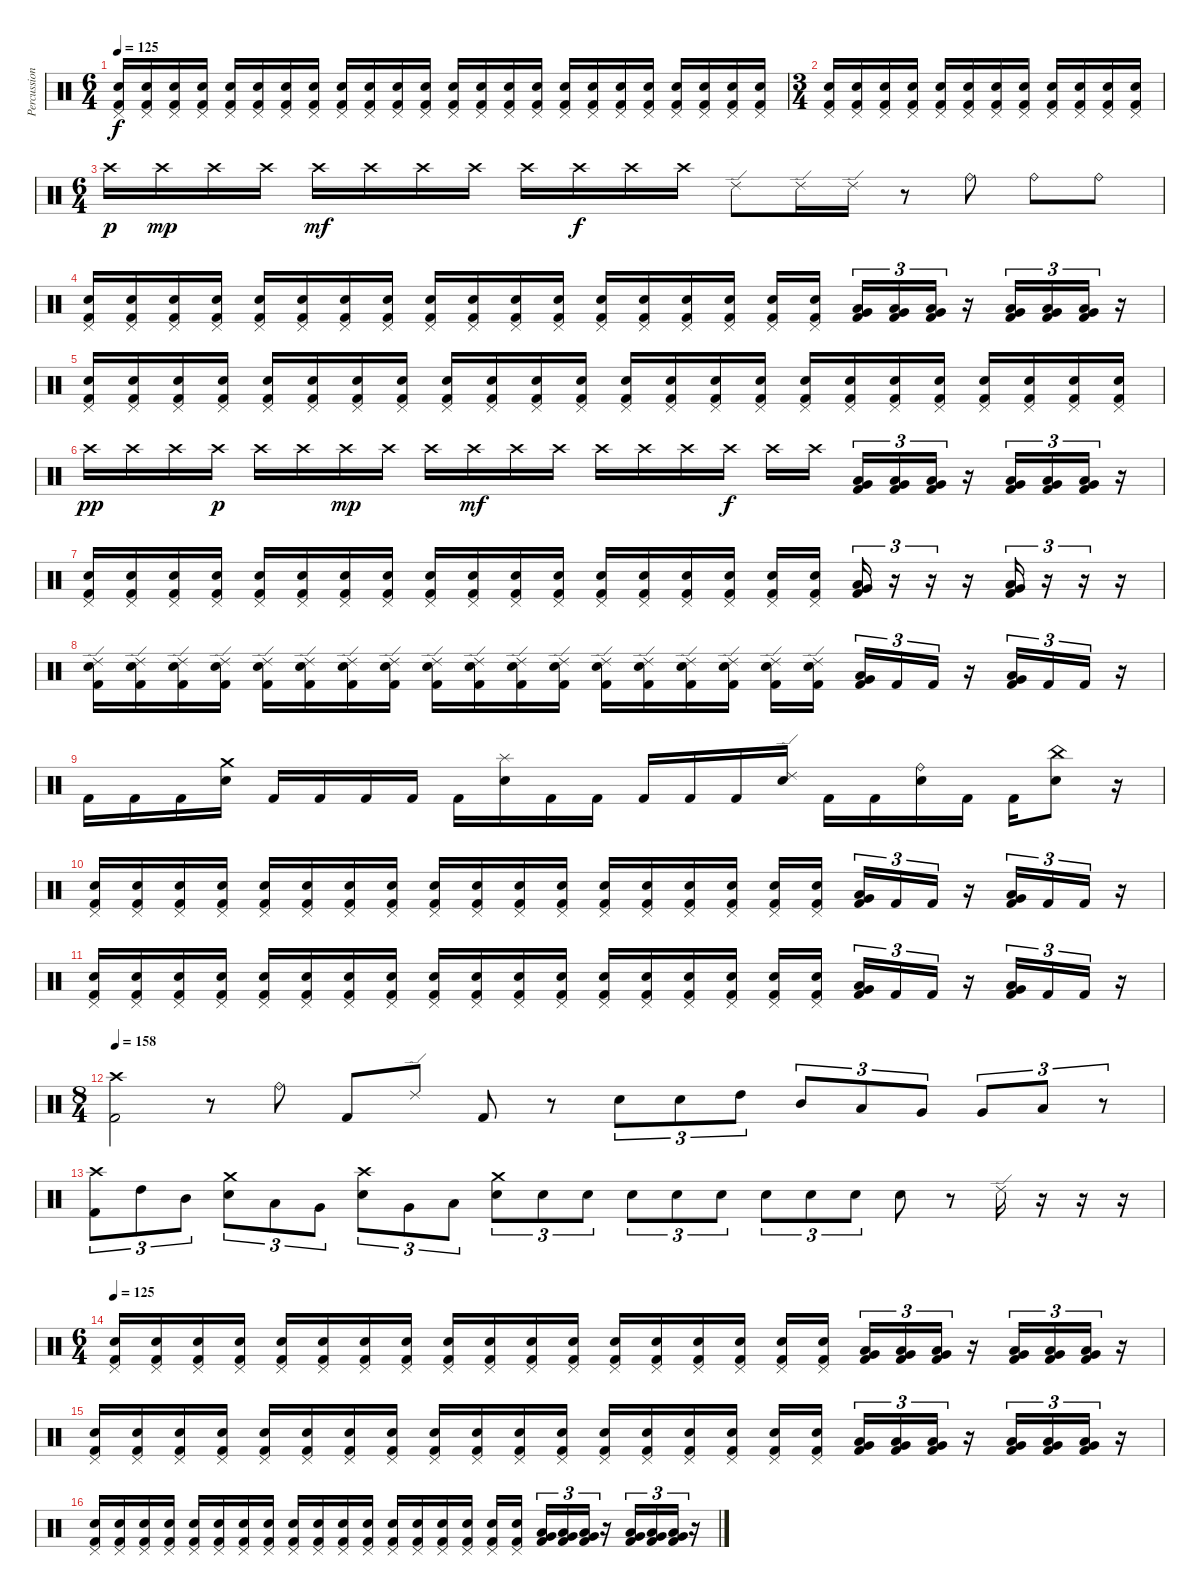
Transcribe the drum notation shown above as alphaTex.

\track ("Percussion" "Percussion") {instrument percussion}
\staff {score}
\articulation defaults
\ts (6 4)
\tempo 125
\clef neutral
\ks c
("Pedal Hi-Hat (hit)" "Electric Snare (hit)" "Kick (hit) 2").16{dy f} ("Pedal Hi-Hat (hit)" "Electric Snare (hit)" "Kick (hit) 2").16 ("Pedal Hi-Hat (hit)" "Electric Snare (hit)" "Kick (hit) 2").16 ("Pedal Hi-Hat (hit)" "Electric Snare (hit)" "Kick (hit) 2").16 ("Pedal Hi-Hat (hit)" "Electric Snare (hit)" "Kick (hit) 2").16 ("Pedal Hi-Hat (hit)" "Electric Snare (hit)" "Kick (hit) 2").16 ("Pedal Hi-Hat (hit)" "Electric Snare (hit)" "Kick (hit) 2").16 ("Pedal Hi-Hat (hit)" "Electric Snare (hit)" "Kick (hit) 2").16 ("Pedal Hi-Hat (hit)" "Electric Snare (hit)" "Kick (hit) 2").16 ("Pedal Hi-Hat (hit)" "Electric Snare (hit)" "Kick (hit) 2").16 ("Pedal Hi-Hat (hit)" "Electric Snare (hit)" "Kick (hit) 2").16 ("Pedal Hi-Hat (hit)" "Electric Snare (hit)" "Kick (hit) 2").16 ("Pedal Hi-Hat (hit)" "Electric Snare (hit)" "Kick (hit) 2").16 ("Pedal Hi-Hat (hit)" "Electric Snare (hit)" "Kick (hit) 2").16 ("Pedal Hi-Hat (hit)" "Electric Snare (hit)" "Kick (hit) 2").16 ("Pedal Hi-Hat (hit)" "Electric Snare (hit)" "Kick (hit) 2").16 ("Pedal Hi-Hat (hit)" "Electric Snare (hit)" "Kick (hit) 2").16 ("Pedal Hi-Hat (hit)" "Electric Snare (hit)" "Kick (hit) 2").16 ("Pedal Hi-Hat (hit)" "Electric Snare (hit)" "Kick (hit) 2").16 ("Pedal Hi-Hat (hit)" "Electric Snare (hit)" "Kick (hit) 2").16 ("Pedal Hi-Hat (hit)" "Electric Snare (hit)" "Kick (hit) 2").16 ("Pedal Hi-Hat (hit)" "Electric Snare (hit)" "Kick (hit) 2").16 ("Pedal Hi-Hat (hit)" "Electric Snare (hit)" "Kick (hit) 2").16 ("Pedal Hi-Hat (hit)" "Electric Snare (hit)" "Kick (hit) 2").16 |
\ts (3 4)
("Pedal Hi-Hat (hit)" "Electric Snare (hit)" "Kick (hit) 2").16 ("Pedal Hi-Hat (hit)" "Electric Snare (hit)" "Kick (hit) 2").16 ("Pedal Hi-Hat (hit)" "Electric Snare (hit)" "Kick (hit) 2").16 ("Pedal Hi-Hat (hit)" "Electric Snare (hit)" "Kick (hit) 2").16 ("Pedal Hi-Hat (hit)" "Electric Snare (hit)" "Kick (hit) 2").16 ("Pedal Hi-Hat (hit)" "Electric Snare (hit)" "Kick (hit) 2").16 ("Pedal Hi-Hat (hit)" "Electric Snare (hit)" "Kick (hit) 2").16 ("Pedal Hi-Hat (hit)" "Electric Snare (hit)" "Kick (hit) 2").16 ("Pedal Hi-Hat (hit)" "Electric Snare (hit)" "Kick (hit) 2").16 ("Pedal Hi-Hat (hit)" "Electric Snare (hit)" "Kick (hit) 2").16 ("Pedal Hi-Hat (hit)" "Electric Snare (hit)" "Kick (hit) 2").16 ("Pedal Hi-Hat (hit)" "Electric Snare (hit)" "Kick (hit) 2").16 |
\ts (6 4)
"Crash high (hit)".16{dy p} "Crash high (hit)".16{dy mp} "Crash high (hit)".16 "Crash high (hit)".16 "Crash high (hit)".16{dy mf} "Crash high (hit)".16 "Crash high (hit)".16 "Crash high (hit)".16 "Crash high (hit)".16 "Crash high (hit)".16{dy f} "Crash high (hit)".16 "Crash high (hit)".16 "Ride (edge) 2".8 "Ride (edge) 2".16 "Ride (edge) 2".16 r.8 "Ride (bell)".8 "Ride (bell)".8 "Ride (bell)".8 |
("Pedal Hi-Hat (hit)" "Electric Snare (hit)" "Kick (hit) 2").16 ("Pedal Hi-Hat (hit)" "Electric Snare (hit)" "Kick (hit) 2").16 ("Pedal Hi-Hat (hit)" "Electric Snare (hit)" "Kick (hit) 2").16 ("Pedal Hi-Hat (hit)" "Electric Snare (hit)" "Kick (hit) 2").16 ("Pedal Hi-Hat (hit)" "Electric Snare (hit)" "Kick (hit) 2").16 ("Pedal Hi-Hat (hit)" "Electric Snare (hit)" "Kick (hit) 2").16 ("Pedal Hi-Hat (hit)" "Electric Snare (hit)" "Kick (hit) 2").16 ("Pedal Hi-Hat (hit)" "Electric Snare (hit)" "Kick (hit) 2").16 ("Pedal Hi-Hat (hit)" "Electric Snare (hit)" "Kick (hit) 2").16 ("Pedal Hi-Hat (hit)" "Electric Snare (hit)" "Kick (hit) 2").16 ("Pedal Hi-Hat (hit)" "Electric Snare (hit)" "Kick (hit) 2").16 ("Pedal Hi-Hat (hit)" "Electric Snare (hit)" "Kick (hit) 2").16 ("Pedal Hi-Hat (hit)" "Electric Snare (hit)" "Kick (hit) 2").16 ("Pedal Hi-Hat (hit)" "Electric Snare (hit)" "Kick (hit) 2").16 ("Pedal Hi-Hat (hit)" "Electric Snare (hit)" "Kick (hit) 2").16 ("Pedal Hi-Hat (hit)" "Electric Snare (hit)" "Kick (hit) 2").16 ("Pedal Hi-Hat (hit)" "Electric Snare (hit)" "Kick (hit) 2").16 ("Pedal Hi-Hat (hit)" "Electric Snare (hit)" "Kick (hit) 2").16{beam splitsecondary} ("Very Low Tom (hit)" "Low Floor Tom (hit)" "Kick (hit) 2").16{tu (3 2)} ("Very Low Tom (hit)" "Low Floor Tom (hit)" "Kick (hit) 2").16{tu (3 2)} ("Very Low Tom (hit)" "Low Floor Tom (hit)" "Kick (hit) 2").16{tu (3 2)} r.16 ("Very Low Tom (hit)" "Low Floor Tom (hit)" "Kick (hit) 2").16{tu (3 2)} ("Very Low Tom (hit)" "Low Floor Tom (hit)" "Kick (hit) 2").16{tu (3 2)} ("Very Low Tom (hit)" "Low Floor Tom (hit)" "Kick (hit) 2").16{tu (3 2)} r.16 |
("Pedal Hi-Hat (hit)" "Electric Snare (hit)" "Kick (hit) 2").16 ("Pedal Hi-Hat (hit)" "Electric Snare (hit)" "Kick (hit) 2").16 ("Pedal Hi-Hat (hit)" "Electric Snare (hit)" "Kick (hit) 2").16 ("Pedal Hi-Hat (hit)" "Electric Snare (hit)" "Kick (hit) 2").16 ("Pedal Hi-Hat (hit)" "Electric Snare (hit)" "Kick (hit) 2").16 ("Pedal Hi-Hat (hit)" "Electric Snare (hit)" "Kick (hit) 2").16 ("Pedal Hi-Hat (hit)" "Electric Snare (hit)" "Kick (hit) 2").16 ("Pedal Hi-Hat (hit)" "Electric Snare (hit)" "Kick (hit) 2").16 ("Pedal Hi-Hat (hit)" "Electric Snare (hit)" "Kick (hit) 2").16 ("Pedal Hi-Hat (hit)" "Electric Snare (hit)" "Kick (hit) 2").16 ("Pedal Hi-Hat (hit)" "Electric Snare (hit)" "Kick (hit) 2").16 ("Pedal Hi-Hat (hit)" "Electric Snare (hit)" "Kick (hit) 2").16 ("Pedal Hi-Hat (hit)" "Electric Snare (hit)" "Kick (hit) 2").16 ("Pedal Hi-Hat (hit)" "Electric Snare (hit)" "Kick (hit) 2").16 ("Pedal Hi-Hat (hit)" "Electric Snare (hit)" "Kick (hit) 2").16 ("Pedal Hi-Hat (hit)" "Electric Snare (hit)" "Kick (hit) 2").16 ("Pedal Hi-Hat (hit)" "Electric Snare (hit)" "Kick (hit) 2").16 ("Pedal Hi-Hat (hit)" "Electric Snare (hit)" "Kick (hit) 2").16 ("Pedal Hi-Hat (hit)" "Electric Snare (hit)" "Kick (hit) 2").16 ("Pedal Hi-Hat (hit)" "Electric Snare (hit)" "Kick (hit) 2").16 ("Pedal Hi-Hat (hit)" "Electric Snare (hit)" "Kick (hit) 2").16 ("Pedal Hi-Hat (hit)" "Electric Snare (hit)" "Kick (hit) 2").16 ("Pedal Hi-Hat (hit)" "Electric Snare (hit)" "Kick (hit) 2").16 ("Pedal Hi-Hat (hit)" "Electric Snare (hit)" "Kick (hit) 2").16 |
"Crash high (hit)".16{dy pp} "Crash high (hit)".16 "Crash high (hit)".16 "Crash high (hit)".16{dy p} "Crash high (hit)".16 "Crash high (hit)".16 "Crash high (hit)".16{dy mp} "Crash high (hit)".16 "Crash high (hit)".16 "Crash high (hit)".16{dy mf} "Crash high (hit)".16 "Crash high (hit)".16 "Crash high (hit)".16 "Crash high (hit)".16 "Crash high (hit)".16 "Crash high (hit)".16{dy f} "Crash high (hit)".16 "Crash high (hit)".16{beam splitsecondary} ("Very Low Tom (hit)" "Low Floor Tom (hit)" "Kick (hit) 2").16{tu (3 2)} ("Very Low Tom (hit)" "Low Floor Tom (hit)" "Kick (hit) 2").16{tu (3 2)} ("Very Low Tom (hit)" "Low Floor Tom (hit)" "Kick (hit) 2").16{tu (3 2)} r.16 ("Very Low Tom (hit)" "Low Floor Tom (hit)" "Kick (hit) 2").16{tu (3 2)} ("Very Low Tom (hit)" "Low Floor Tom (hit)" "Kick (hit) 2").16{tu (3 2)} ("Very Low Tom (hit)" "Low Floor Tom (hit)" "Kick (hit) 2").16{tu (3 2)} r.16 |
("Pedal Hi-Hat (hit)" "Electric Snare (hit)" "Kick (hit) 2").16 ("Pedal Hi-Hat (hit)" "Electric Snare (hit)" "Kick (hit) 2").16 ("Pedal Hi-Hat (hit)" "Electric Snare (hit)" "Kick (hit) 2").16 ("Pedal Hi-Hat (hit)" "Electric Snare (hit)" "Kick (hit) 2").16 ("Pedal Hi-Hat (hit)" "Electric Snare (hit)" "Kick (hit) 2").16 ("Pedal Hi-Hat (hit)" "Electric Snare (hit)" "Kick (hit) 2").16 ("Pedal Hi-Hat (hit)" "Electric Snare (hit)" "Kick (hit) 2").16 ("Pedal Hi-Hat (hit)" "Electric Snare (hit)" "Kick (hit) 2").16 ("Pedal Hi-Hat (hit)" "Electric Snare (hit)" "Kick (hit) 2").16 ("Pedal Hi-Hat (hit)" "Electric Snare (hit)" "Kick (hit) 2").16 ("Pedal Hi-Hat (hit)" "Electric Snare (hit)" "Kick (hit) 2").16 ("Pedal Hi-Hat (hit)" "Electric Snare (hit)" "Kick (hit) 2").16 ("Pedal Hi-Hat (hit)" "Electric Snare (hit)" "Kick (hit) 2").16 ("Pedal Hi-Hat (hit)" "Electric Snare (hit)" "Kick (hit) 2").16 ("Pedal Hi-Hat (hit)" "Electric Snare (hit)" "Kick (hit) 2").16 ("Pedal Hi-Hat (hit)" "Electric Snare (hit)" "Kick (hit) 2").16 ("Pedal Hi-Hat (hit)" "Electric Snare (hit)" "Kick (hit) 2").16 ("Pedal Hi-Hat (hit)" "Electric Snare (hit)" "Kick (hit) 2").16{beam splitsecondary} ("Very Low Tom (hit)" "Low Floor Tom (hit)" "Kick (hit) 2").16{tu (3 2)} r.16{tu (3 2)} r.16{tu (3 2)} r.16 ("Very Low Tom (hit)" "Low Floor Tom (hit)" "Kick (hit) 2").16{tu (3 2)} r.16{tu (3 2)} r.16{tu (3 2)} r.16 |
("Ride (edge) 2" "Electric Snare (hit)" "Kick (hit) 2").16 ("Ride (edge) 2" "Electric Snare (hit)" "Kick (hit) 2").16 ("Ride (edge) 2" "Electric Snare (hit)" "Kick (hit) 2").16 ("Ride (edge) 2" "Electric Snare (hit)" "Kick (hit) 2").16 ("Ride (edge) 2" "Electric Snare (hit)" "Kick (hit) 2").16 ("Ride (edge) 2" "Electric Snare (hit)" "Kick (hit) 2").16 ("Ride (edge) 2" "Electric Snare (hit)" "Kick (hit) 2").16 ("Ride (edge) 2" "Electric Snare (hit)" "Kick (hit) 2").16 ("Ride (edge) 2" "Electric Snare (hit)" "Kick (hit) 2").16 ("Ride (edge) 2" "Electric Snare (hit)" "Kick (hit) 2").16 ("Ride (edge) 2" "Electric Snare (hit)" "Kick (hit) 2").16 ("Ride (edge) 2" "Electric Snare (hit)" "Kick (hit) 2").16 ("Ride (edge) 2" "Electric Snare (hit)" "Kick (hit) 2").16 ("Ride (edge) 2" "Electric Snare (hit)" "Kick (hit) 2").16 ("Ride (edge) 2" "Electric Snare (hit)" "Kick (hit) 2").16 ("Ride (edge) 2" "Electric Snare (hit)" "Kick (hit) 2").16 ("Ride (edge) 2" "Electric Snare (hit)" "Kick (hit) 2").16 ("Ride (edge) 2" "Electric Snare (hit)" "Kick (hit) 2").16{beam splitsecondary} ("Very Low Tom (hit)" "Low Floor Tom (hit)" "Kick (hit) 2").16{tu (3 2)} "Kick (hit) 2".16{tu (3 2)} "Kick (hit) 2".16{tu (3 2)} r.16 ("Very Low Tom (hit)" "Low Floor Tom (hit)" "Kick (hit) 2").16{tu (3 2)} "Kick (hit) 2".16{tu (3 2)} "Kick (hit) 2".16{tu (3 2)} r.16 |
"Kick (hit) 2".16 "Kick (hit) 2".16 "Kick (hit) 2".16 ("Crash medium (hit)" "Electric Snare (hit)").16 "Kick (hit) 2".16 "Kick (hit) 2".16 "Kick (hit) 2".16 "Kick (hit) 2".16 "Kick (hit) 2".16 ("Splash (hit)" "Electric Snare (hit)").16 "Kick (hit) 2".16 "Kick (hit) 2".16 "Kick (hit) 2".16 "Kick (hit) 2".16 "Kick (hit) 2".16 ("Ride (edge) 2" "Electric Snare (hit)").16 "Kick (hit) 2".16 "Kick (hit) 2".16 ("Ride (bell)" "Electric Snare (hit)").16 "Kick (hit) 2".16 "Kick (hit) 2".16 ("China (hit)" "Electric Snare (hit)").8 r.16 |
("Pedal Hi-Hat (hit)" "Electric Snare (hit)" "Kick (hit) 2").16 ("Pedal Hi-Hat (hit)" "Electric Snare (hit)" "Kick (hit) 2").16 ("Pedal Hi-Hat (hit)" "Electric Snare (hit)" "Kick (hit) 2").16 ("Pedal Hi-Hat (hit)" "Electric Snare (hit)" "Kick (hit) 2").16 ("Pedal Hi-Hat (hit)" "Electric Snare (hit)" "Kick (hit) 2").16 ("Pedal Hi-Hat (hit)" "Electric Snare (hit)" "Kick (hit) 2").16 ("Pedal Hi-Hat (hit)" "Electric Snare (hit)" "Kick (hit) 2").16 ("Pedal Hi-Hat (hit)" "Electric Snare (hit)" "Kick (hit) 2").16 ("Pedal Hi-Hat (hit)" "Electric Snare (hit)" "Kick (hit) 2").16 ("Pedal Hi-Hat (hit)" "Electric Snare (hit)" "Kick (hit) 2").16 ("Pedal Hi-Hat (hit)" "Electric Snare (hit)" "Kick (hit) 2").16 ("Pedal Hi-Hat (hit)" "Electric Snare (hit)" "Kick (hit) 2").16 ("Pedal Hi-Hat (hit)" "Electric Snare (hit)" "Kick (hit) 2").16 ("Pedal Hi-Hat (hit)" "Electric Snare (hit)" "Kick (hit) 2").16 ("Pedal Hi-Hat (hit)" "Electric Snare (hit)" "Kick (hit) 2").16 ("Pedal Hi-Hat (hit)" "Electric Snare (hit)" "Kick (hit) 2").16 ("Pedal Hi-Hat (hit)" "Electric Snare (hit)" "Kick (hit) 2").16 ("Pedal Hi-Hat (hit)" "Electric Snare (hit)" "Kick (hit) 2").16{beam splitsecondary} ("Very Low Tom (hit)" "Low Floor Tom (hit)" "Kick (hit) 2").16{tu (3 2)} "Kick (hit) 2".16{tu (3 2)} "Kick (hit) 2".16{tu (3 2)} r.16 ("Very Low Tom (hit)" "Low Floor Tom (hit)" "Kick (hit) 2").16{tu (3 2)} "Kick (hit) 2".16{tu (3 2)} "Kick (hit) 2".16{tu (3 2)} r.16 |
("Pedal Hi-Hat (hit)" "Electric Snare (hit)" "Kick (hit) 2").16 ("Pedal Hi-Hat (hit)" "Electric Snare (hit)" "Kick (hit) 2").16 ("Pedal Hi-Hat (hit)" "Electric Snare (hit)" "Kick (hit) 2").16 ("Pedal Hi-Hat (hit)" "Electric Snare (hit)" "Kick (hit) 2").16 ("Pedal Hi-Hat (hit)" "Electric Snare (hit)" "Kick (hit) 2").16 ("Pedal Hi-Hat (hit)" "Electric Snare (hit)" "Kick (hit) 2").16 ("Pedal Hi-Hat (hit)" "Electric Snare (hit)" "Kick (hit) 2").16 ("Pedal Hi-Hat (hit)" "Electric Snare (hit)" "Kick (hit) 2").16 ("Pedal Hi-Hat (hit)" "Electric Snare (hit)" "Kick (hit) 2").16 ("Pedal Hi-Hat (hit)" "Electric Snare (hit)" "Kick (hit) 2").16 ("Pedal Hi-Hat (hit)" "Electric Snare (hit)" "Kick (hit) 2").16 ("Pedal Hi-Hat (hit)" "Electric Snare (hit)" "Kick (hit) 2").16 ("Pedal Hi-Hat (hit)" "Electric Snare (hit)" "Kick (hit) 2").16 ("Pedal Hi-Hat (hit)" "Electric Snare (hit)" "Kick (hit) 2").16 ("Pedal Hi-Hat (hit)" "Electric Snare (hit)" "Kick (hit) 2").16 ("Pedal Hi-Hat (hit)" "Electric Snare (hit)" "Kick (hit) 2").16 ("Pedal Hi-Hat (hit)" "Electric Snare (hit)" "Kick (hit) 2").16 ("Pedal Hi-Hat (hit)" "Electric Snare (hit)" "Kick (hit) 2").16{beam splitsecondary} ("Very Low Tom (hit)" "Low Floor Tom (hit)" "Kick (hit) 2").16{tu (3 2)} "Kick (hit) 2".16{tu (3 2)} "Kick (hit) 2".16{tu (3 2)} r.16 ("Very Low Tom (hit)" "Low Floor Tom (hit)" "Kick (hit) 2").16{tu (3 2)} "Kick (hit) 2".16{tu (3 2)} "Kick (hit) 2".16{tu (3 2)} r.16 |
\ts (8 4)
\tempo 158
("Crash high (hit)" "Kick (hit) 2").2 r.8 "Ride (bell)".8 "Kick (hit) 2".8 "Ride (edge) 2".8 "Kick (hit) 2".8 r.8 "Electric Snare (hit)".8{tu (3 2)} "Electric Snare (hit)".8{tu (3 2)} "High Tom (hit)".8{tu (3 2)} "Mid Tom (hit)".8{tu (3 2)} "Low Tom (hit)".8{tu (3 2)} "Very Low Tom (hit)".8{tu (3 2)} "Very Low Tom (hit)".8{tu (3 2)} "Low Floor Tom (hit)".8{tu (3 2)} r.8{tu (3 2)} |
("Crash high (hit)" "Kick (hit) 2").8{tu (3 2)} "High Tom (hit)".8{tu (3 2)} "Mid Tom (hit)".8{tu (3 2)} ("Crash medium (hit)" "Electric Snare (hit)").8{tu (3 2)} "Low Tom (hit)".8{tu (3 2)} "Very Low Tom (hit)".8{tu (3 2)} ("Crash high (hit)" "Electric Snare (hit)").8{tu (3 2)} "Very Low Tom (hit)".8{tu (3 2)} "Low Floor Tom (hit)".8{tu (3 2)} ("Crash medium (hit)" "Electric Snare (hit)").8{tu (3 2)} "Electric Snare (hit)".8{tu (3 2)} "Electric Snare (hit)".8{tu (3 2)} "Electric Snare (hit)".8{tu (3 2)} "Electric Snare (hit)".8{tu (3 2)} "Electric Snare (hit)".8{tu (3 2)} "Electric Snare (hit)".8{tu (3 2)} "Electric Snare (hit)".8{tu (3 2)} "Electric Snare (hit)".8{tu (3 2)} "Electric Snare (hit)".8 r.8 "Ride (edge) 2".16 r.16 r.16 r.16 |
\ts (6 4)
\tempo 125
("Pedal Hi-Hat (hit)" "Electric Snare (hit)" "Kick (hit) 2").16 ("Pedal Hi-Hat (hit)" "Electric Snare (hit)" "Kick (hit) 2").16 ("Pedal Hi-Hat (hit)" "Electric Snare (hit)" "Kick (hit) 2").16 ("Pedal Hi-Hat (hit)" "Electric Snare (hit)" "Kick (hit) 2").16 ("Pedal Hi-Hat (hit)" "Electric Snare (hit)" "Kick (hit) 2").16 ("Pedal Hi-Hat (hit)" "Electric Snare (hit)" "Kick (hit) 2").16 ("Pedal Hi-Hat (hit)" "Electric Snare (hit)" "Kick (hit) 2").16 ("Pedal Hi-Hat (hit)" "Electric Snare (hit)" "Kick (hit) 2").16 ("Pedal Hi-Hat (hit)" "Electric Snare (hit)" "Kick (hit) 2").16 ("Pedal Hi-Hat (hit)" "Electric Snare (hit)" "Kick (hit) 2").16 ("Pedal Hi-Hat (hit)" "Electric Snare (hit)" "Kick (hit) 2").16 ("Pedal Hi-Hat (hit)" "Electric Snare (hit)" "Kick (hit) 2").16 ("Pedal Hi-Hat (hit)" "Electric Snare (hit)" "Kick (hit) 2").16 ("Pedal Hi-Hat (hit)" "Electric Snare (hit)" "Kick (hit) 2").16 ("Pedal Hi-Hat (hit)" "Electric Snare (hit)" "Kick (hit) 2").16 ("Pedal Hi-Hat (hit)" "Electric Snare (hit)" "Kick (hit) 2").16 ("Pedal Hi-Hat (hit)" "Electric Snare (hit)" "Kick (hit) 2").16 ("Pedal Hi-Hat (hit)" "Electric Snare (hit)" "Kick (hit) 2").16{beam splitsecondary} ("Very Low Tom (hit)" "Low Floor Tom (hit)" "Kick (hit) 2").16{tu (3 2)} ("Very Low Tom (hit)" "Low Floor Tom (hit)" "Kick (hit) 2").16{tu (3 2)} ("Very Low Tom (hit)" "Low Floor Tom (hit)" "Kick (hit) 2").16{tu (3 2)} r.16 ("Very Low Tom (hit)" "Low Floor Tom (hit)" "Kick (hit) 2").16{tu (3 2)} ("Very Low Tom (hit)" "Low Floor Tom (hit)" "Kick (hit) 2").16{tu (3 2)} ("Very Low Tom (hit)" "Low Floor Tom (hit)" "Kick (hit) 2").16{tu (3 2)} r.16 |
("Pedal Hi-Hat (hit)" "Electric Snare (hit)" "Kick (hit) 2").16 ("Pedal Hi-Hat (hit)" "Electric Snare (hit)" "Kick (hit) 2").16 ("Pedal Hi-Hat (hit)" "Electric Snare (hit)" "Kick (hit) 2").16 ("Pedal Hi-Hat (hit)" "Electric Snare (hit)" "Kick (hit) 2").16 ("Pedal Hi-Hat (hit)" "Electric Snare (hit)" "Kick (hit) 2").16 ("Pedal Hi-Hat (hit)" "Electric Snare (hit)" "Kick (hit) 2").16 ("Pedal Hi-Hat (hit)" "Electric Snare (hit)" "Kick (hit) 2").16 ("Pedal Hi-Hat (hit)" "Electric Snare (hit)" "Kick (hit) 2").16 ("Pedal Hi-Hat (hit)" "Electric Snare (hit)" "Kick (hit) 2").16 ("Pedal Hi-Hat (hit)" "Electric Snare (hit)" "Kick (hit) 2").16 ("Pedal Hi-Hat (hit)" "Electric Snare (hit)" "Kick (hit) 2").16 ("Pedal Hi-Hat (hit)" "Electric Snare (hit)" "Kick (hit) 2").16 ("Pedal Hi-Hat (hit)" "Electric Snare (hit)" "Kick (hit) 2").16 ("Pedal Hi-Hat (hit)" "Electric Snare (hit)" "Kick (hit) 2").16 ("Pedal Hi-Hat (hit)" "Electric Snare (hit)" "Kick (hit) 2").16 ("Pedal Hi-Hat (hit)" "Electric Snare (hit)" "Kick (hit) 2").16 ("Pedal Hi-Hat (hit)" "Electric Snare (hit)" "Kick (hit) 2").16 ("Pedal Hi-Hat (hit)" "Electric Snare (hit)" "Kick (hit) 2").16{beam splitsecondary} ("Very Low Tom (hit)" "Low Floor Tom (hit)" "Kick (hit) 2").16{tu (3 2)} ("Very Low Tom (hit)" "Low Floor Tom (hit)" "Kick (hit) 2").16{tu (3 2)} ("Very Low Tom (hit)" "Low Floor Tom (hit)" "Kick (hit) 2").16{tu (3 2)} r.16 ("Very Low Tom (hit)" "Low Floor Tom (hit)" "Kick (hit) 2").16{tu (3 2)} ("Very Low Tom (hit)" "Low Floor Tom (hit)" "Kick (hit) 2").16{tu (3 2)} ("Very Low Tom (hit)" "Low Floor Tom (hit)" "Kick (hit) 2").16{tu (3 2)} r.16 |
("Pedal Hi-Hat (hit)" "Electric Snare (hit)" "Kick (hit) 2").16 ("Pedal Hi-Hat (hit)" "Electric Snare (hit)" "Kick (hit) 2").16 ("Pedal Hi-Hat (hit)" "Electric Snare (hit)" "Kick (hit) 2").16 ("Pedal Hi-Hat (hit)" "Electric Snare (hit)" "Kick (hit) 2").16 ("Pedal Hi-Hat (hit)" "Electric Snare (hit)" "Kick (hit) 2").16 ("Pedal Hi-Hat (hit)" "Electric Snare (hit)" "Kick (hit) 2").16 ("Pedal Hi-Hat (hit)" "Electric Snare (hit)" "Kick (hit) 2").16 ("Pedal Hi-Hat (hit)" "Electric Snare (hit)" "Kick (hit) 2").16 ("Pedal Hi-Hat (hit)" "Electric Snare (hit)" "Kick (hit) 2").16 ("Pedal Hi-Hat (hit)" "Electric Snare (hit)" "Kick (hit) 2").16 ("Pedal Hi-Hat (hit)" "Electric Snare (hit)" "Kick (hit) 2").16 ("Pedal Hi-Hat (hit)" "Electric Snare (hit)" "Kick (hit) 2").16 ("Pedal Hi-Hat (hit)" "Electric Snare (hit)" "Kick (hit) 2").16 ("Pedal Hi-Hat (hit)" "Electric Snare (hit)" "Kick (hit) 2").16 ("Pedal Hi-Hat (hit)" "Electric Snare (hit)" "Kick (hit) 2").16 ("Pedal Hi-Hat (hit)" "Electric Snare (hit)" "Kick (hit) 2").16 ("Pedal Hi-Hat (hit)" "Electric Snare (hit)" "Kick (hit) 2").16 ("Pedal Hi-Hat (hit)" "Electric Snare (hit)" "Kick (hit) 2").16{beam splitsecondary} ("Very Low Tom (hit)" "Low Floor Tom (hit)" "Kick (hit) 2").16{tu (3 2)} ("Very Low Tom (hit)" "Low Floor Tom (hit)" "Kick (hit) 2").16{tu (3 2)} ("Very Low Tom (hit)" "Low Floor Tom (hit)" "Kick (hit) 2").16{tu (3 2)} r.16 ("Very Low Tom (hit)" "Low Floor Tom (hit)" "Kick (hit) 2").16{tu (3 2)} ("Very Low Tom (hit)" "Low Floor Tom (hit)" "Kick (hit) 2").16{tu (3 2)} ("Very Low Tom (hit)" "Low Floor Tom (hit)" "Kick (hit) 2").16{tu (3 2)} r.16
